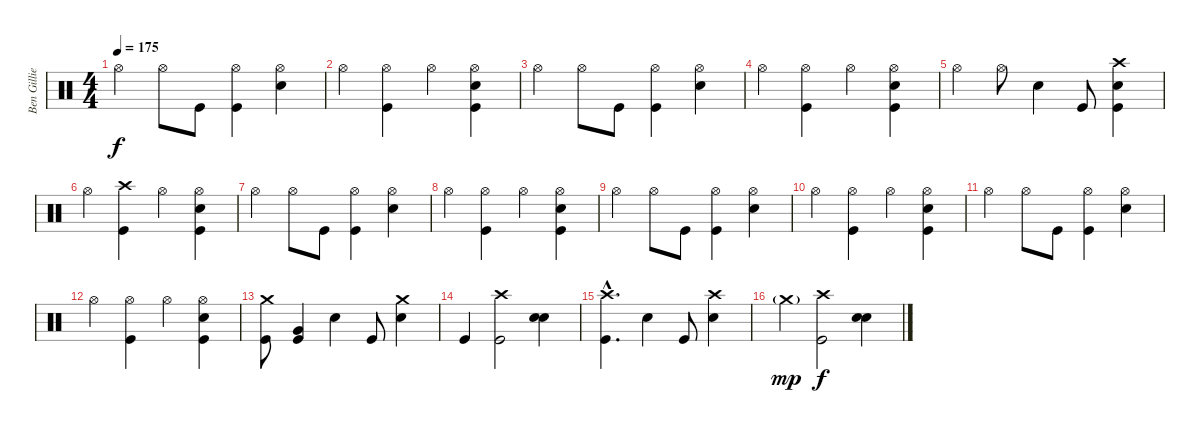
\track ("Ben Gillies" "Ben Gillie") {instrument percussion}
\staff {score}
\articulation defaults
\ts (4 4)
\tempo 175
\clef neutral
\ks c "Hi-Hat (open)".4{dy f} "Hi-Hat (open)".8 "Kick (hit)".8
("Kick (hit)" "Hi-Hat (open)").4 ("Snare (hit) 2" "Hi-Hat (open)").4 |
"Hi-Hat (open)".4 ("Kick (hit)" "Hi-Hat (open)").4 "Hi-Hat (open)".4 ("Kick (hit)" "Snare (hit) 2" "Hi-Hat (open)").4 |
"Hi-Hat (open)".4 "Hi-Hat (open)".8 "Kick (hit)".8 ("Kick (hit)" "Hi-Hat (open)").4 ("Snare (hit) 2" "Hi-Hat (open)").4 |
"Hi-Hat (open)".4 ("Kick (hit)" "Hi-Hat (open)").4 "Hi-Hat (open)".4 ("Kick (hit)" "Snare (hit) 2" "Hi-Hat (open)").4 |
"Hi-Hat (open)".4 "Hi-Hat (open)".8 "Snare (hit) 2".4 "Kick (hit)".8 ("Kick (hit)" "Crash high (hit)" "Snare (hit) 2").4 |
"Hi-Hat (open)".4 ("Kick (hit)" "Crash high (hit)").4 "Hi-Hat (open)".4 ("Kick (hit)" "Snare (hit) 2" "Hi-Hat (open)").4 |
"Hi-Hat (open)".4 "Hi-Hat (open)".8 "Kick (hit)".8 ("Kick (hit)" "Hi-Hat (open)").4 ("Snare (hit) 2" "Hi-Hat (open)").4 |
"Hi-Hat (open)".4 ("Kick (hit)" "Hi-Hat (open)").4 "Hi-Hat (open)".4 ("Kick (hit)" "Snare (hit) 2" "Hi-Hat (open)").4 |
"Hi-Hat (open)".4 "Hi-Hat (open)".8 "Kick (hit)".8 ("Kick (hit)" "Hi-Hat (open)").4 ("Snare (hit) 2" "Hi-Hat (open)").4 |
"Hi-Hat (open)".4 ("Kick (hit)" "Hi-Hat (open)").4 "Hi-Hat (open)".4 ("Kick (hit)" "Snare (hit) 2" "Hi-Hat (open)").4 |
"Hi-Hat (open)".4 "Hi-Hat (open)".8 "Kick (hit)".8 ("Kick (hit)" "Hi-Hat (open)").4 ("Snare (hit) 2" "Hi-Hat (open)").4 |
"Hi-Hat (open)".4 ("Kick (hit)" "Hi-Hat (open)").4 "Hi-Hat (open)".4 ("Kick (hit)" "Snare (hit) 2" "Hi-Hat (open)").4 |
("Kick (hit)" "Crash medium (hit)").8 ("Kick (hit)" "Very Low Tom (hit)").4 "Snare (hit) 2".4 "Kick (hit)".8 ("Snare (hit) 2" "Crash medium (hit)").4 |
"Kick (hit)".4 ("Kick (hit)" "Crash high (hit)").2 ("Snare (hit) 2" "Snare (hit) 2").4{bu 60} |
("Kick (hit)"{hac} "Crash high (hit)"{hac}).4{d} "Snare (hit) 2".4 "Kick (hit)".8 ("Snare (hit) 2" "Crash high (hit)").4 |
"Crash medium (hit)"{g}.4{dy mp} ("Kick (hit)" "Crash high (hit)").2{dy f} ("Snare (hit) 2" "Snare (hit) 2").4{bu 60}
